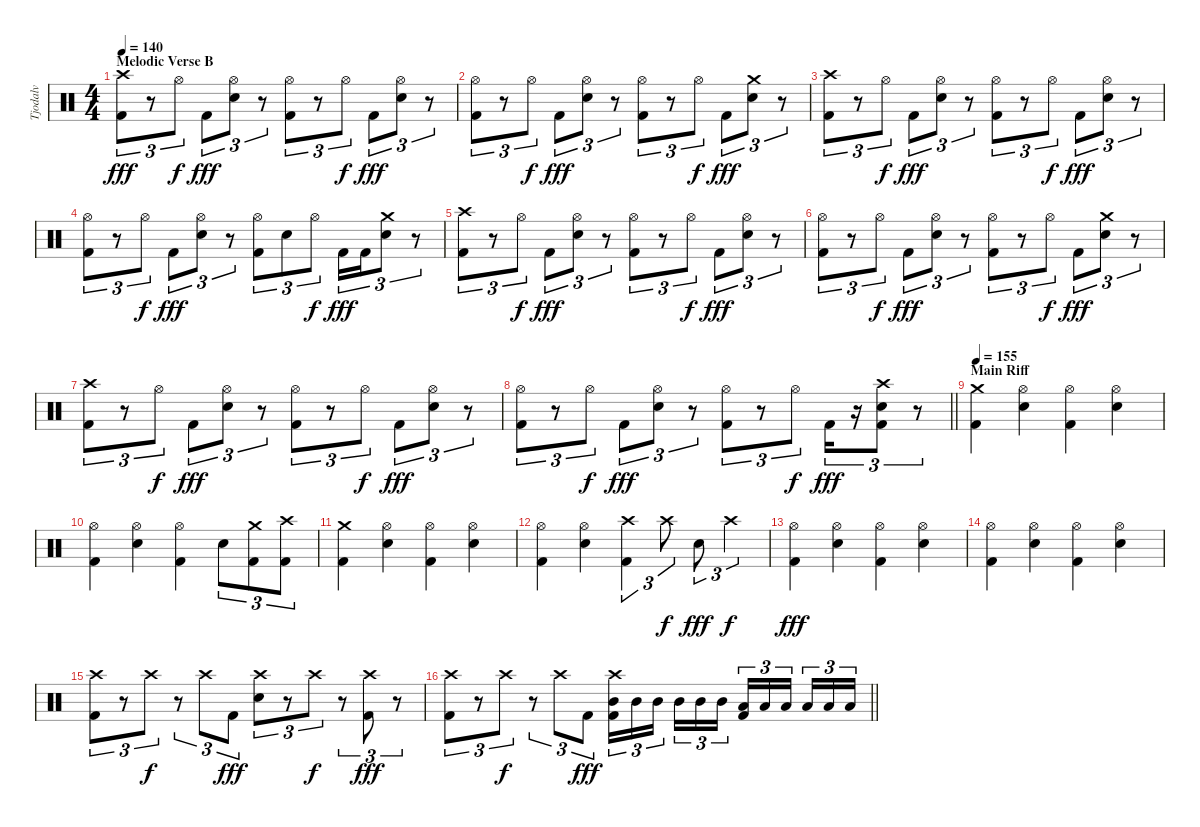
\track ("Tjodalv" "Tjodalv") {instrument percussion}
\staff {score}
\articulation defaults
\ts (4 4)
\section ("" "Melodic Verse B")
\tempo 140
\clef neutral
\ks c
("Crash high (hit)" "Kick (hit) 2").8{tu (3 2) dy fff} r.8{tu (3 2)} "Hi-Hat (open)".8{tu (3 2) dy f} "Kick (hit) 2".8{tu (3 2) dy fff} ("Hi-Hat (open)" "Snare (hit) 2").8{tu (3 2)} r.8{tu (3 2)} ("Hi-Hat (open)" "Kick (hit) 2").8{tu (3 2)} r.8{tu (3 2)} "Hi-Hat (open)".8{tu (3 2) dy f} "Kick (hit) 2".8{tu (3 2) dy fff} ("Hi-Hat (open)" "Snare (hit) 2").8{tu (3 2)} r.8{tu (3 2)} |
("Hi-Hat (open)" "Kick (hit) 2").8{tu (3 2)} r.8{tu (3 2)} "Hi-Hat (open)".8{tu (3 2) dy f} "Kick (hit) 2".8{tu (3 2) dy fff} ("Hi-Hat (open)" "Snare (hit) 2").8{tu (3 2)} r.8{tu (3 2)} ("Hi-Hat (open)" "Kick (hit) 2").8{tu (3 2)} r.8{tu (3 2)} "Hi-Hat (open)".8{tu (3 2) dy f} "Kick (hit) 2".8{tu (3 2) dy fff} ("Crash medium (hit)" "Snare (hit) 2").8{tu (3 2)} r.8{tu (3 2)} |
("Crash high (hit)" "Kick (hit) 2").8{tu (3 2)} r.8{tu (3 2)} "Hi-Hat (open)".8{tu (3 2) dy f} "Kick (hit) 2".8{tu (3 2) dy fff} ("Hi-Hat (open)" "Snare (hit) 2").8{tu (3 2)} r.8{tu (3 2)} ("Hi-Hat (open)" "Kick (hit) 2").8{tu (3 2)} r.8{tu (3 2)} "Hi-Hat (open)".8{tu (3 2) dy f} "Kick (hit) 2".8{tu (3 2) dy fff} ("Hi-Hat (open)" "Snare (hit) 2").8{tu (3 2)} r.8{tu (3 2)} |
("Hi-Hat (open)" "Kick (hit) 2").8{tu (3 2)} r.8{tu (3 2)} "Hi-Hat (open)".8{tu (3 2) dy f} "Kick (hit) 2".8{tu (3 2) dy fff} ("Hi-Hat (open)" "Snare (hit) 2").8{tu (3 2)} r.8{tu (3 2)} ("Hi-Hat (open)" "Kick (hit) 2").8{tu (3 2)} "Snare (hit) 2".8{tu (3 2)} "Hi-Hat (open)".8{tu (3 2) dy f} "Kick (hit) 2".16{tu (3 2) dy fff} "Kick (hit) 2".16{tu (3 2)} ("Crash medium (hit)" "Snare (hit) 2").8{tu (3 2)} r.8{tu (3 2)} |
("Crash high (hit)" "Kick (hit) 2").8{tu (3 2)} r.8{tu (3 2)} "Hi-Hat (open)".8{tu (3 2) dy f} "Kick (hit) 2".8{tu (3 2) dy fff} ("Hi-Hat (open)" "Snare (hit) 2").8{tu (3 2)} r.8{tu (3 2)} ("Hi-Hat (open)" "Kick (hit) 2").8{tu (3 2)} r.8{tu (3 2)} "Hi-Hat (open)".8{tu (3 2) dy f} "Kick (hit) 2".8{tu (3 2) dy fff} ("Hi-Hat (open)" "Snare (hit) 2").8{tu (3 2)} r.8{tu (3 2)} |
("Hi-Hat (open)" "Kick (hit) 2").8{tu (3 2)} r.8{tu (3 2)} "Hi-Hat (open)".8{tu (3 2) dy f} "Kick (hit) 2".8{tu (3 2) dy fff} ("Hi-Hat (open)" "Snare (hit) 2").8{tu (3 2)} r.8{tu (3 2)} ("Hi-Hat (open)" "Kick (hit) 2").8{tu (3 2)} r.8{tu (3 2)} "Hi-Hat (open)".8{tu (3 2) dy f} "Kick (hit) 2".8{tu (3 2) dy fff} ("Crash medium (hit)" "Snare (hit) 2").8{tu (3 2)} r.8{tu (3 2)} |
("Crash high (hit)" "Kick (hit) 2").8{tu (3 2)} r.8{tu (3 2)} "Hi-Hat (open)".8{tu (3 2) dy f} "Kick (hit) 2".8{tu (3 2) dy fff} ("Hi-Hat (open)" "Snare (hit) 2").8{tu (3 2)} r.8{tu (3 2)} ("Hi-Hat (open)" "Kick (hit) 2").8{tu (3 2)} r.8{tu (3 2)} "Hi-Hat (open)".8{tu (3 2) dy f} "Kick (hit) 2".8{tu (3 2) dy fff} ("Hi-Hat (open)" "Snare (hit) 2").8{tu (3 2)} r.8{tu (3 2)} |
\barLineRight lightlight
("Hi-Hat (open)" "Kick (hit) 2").8{tu (3 2)} r.8{tu (3 2)} "Hi-Hat (open)".8{tu (3 2) dy f} "Kick (hit) 2".8{tu (3 2) dy fff} ("Hi-Hat (open)" "Snare (hit) 2").8{tu (3 2)} r.8{tu (3 2)} ("Hi-Hat (open)" "Kick (hit) 2").8{tu (3 2)} r.8{tu (3 2)} "Hi-Hat (open)".8{tu (3 2) dy f} "Kick (hit) 2".16{tu (3 2) dy fff} r.16{tu (3 2)} ("Crash high (hit)" "Snare (hit) 2" "Kick (hit) 2").8{tu (3 2)} r.8{tu (3 2)} |
\section ("" "Main Riff")
\tempo 155
("Crash medium (hit)" "Kick (hit) 2").4 ("Hi-Hat (open)" "Snare (hit) 2").4 ("Hi-Hat (open)" "Kick (hit) 2").4 ("Hi-Hat (open)" "Snare (hit) 2").4 |
("Hi-Hat (open)" "Kick (hit) 2").4 ("Hi-Hat (open)" "Snare (hit) 2").4 ("Hi-Hat (open)" "Kick (hit) 2").4 "Snare (hit) 2".8{tu (3 2)} ("Crash medium (hit)" "Kick (hit) 2").8{tu (3 2)} ("Crash high (hit)" "Kick (hit) 2").8{tu (3 2)} |
("Crash medium (hit)" "Kick (hit) 2").4 ("Hi-Hat (open)" "Snare (hit) 2").4 ("Hi-Hat (open)" "Kick (hit) 2").4 ("Hi-Hat (open)" "Snare (hit) 2").4 |
("Hi-Hat (open)" "Kick (hit) 2").4 ("Hi-Hat (open)" "Snare (hit) 2").4 ("Crash high (hit)" "Kick (hit) 2").4{tu (3 2)} "Crash high (hit)".8{tu (3 2) dy f} "Snare (hit) 2".8{tu (3 2) dy fff} "Crash high (hit)".4{tu (3 2) dy f} |
("Hi-Hat (open)" "Kick (hit) 2").4{dy fff} ("Hi-Hat (open)" "Snare (hit) 2").4 ("Hi-Hat (open)" "Kick (hit) 2").4 ("Hi-Hat (open)" "Snare (hit) 2").4 |
("Hi-Hat (open)" "Kick (hit) 2").4 ("Hi-Hat (open)" "Snare (hit) 2").4 ("Hi-Hat (open)" "Kick (hit) 2").4 ("Hi-Hat (open)" "Snare (hit) 2").4 |
("Crash high (hit)" "Kick (hit) 2").8{tu (3 2)} r.8{tu (3 2)} "Crash high (hit)".8{tu (3 2) dy f} r.8{tu (3 2)} "Crash high (hit)".8{tu (3 2)} "Kick (hit) 2".8{tu (3 2) dy fff} ("Crash high (hit)" "Snare (hit) 2").8{tu (3 2)} r.8{tu (3 2)} "Crash high (hit)".8{tu (3 2) dy f} r.8{tu (3 2)} ("Crash high (hit)" "Kick (hit) 2").8{tu (3 2) dy fff} r.8{tu (3 2)} |
\barLineRight lightlight
("Crash high (hit)" "Kick (hit) 2").8{tu (3 2)} r.8{tu (3 2)} "Crash high (hit)".8{tu (3 2) dy f} r.8{tu (3 2)} "Crash high (hit)".8{tu (3 2)} "Kick (hit) 2".8{tu (3 2) dy fff} ("Crash high (hit)" "Mid Tom (hit)" "Kick (hit) 2").16{tu (3 2)} "Mid Tom (hit)".16{tu (3 2)} "Mid Tom (hit)".16{tu (3 2) beam splitsecondary} "Mid Tom (hit)".16{tu (3 2)} "Mid Tom (hit)".16{tu (3 2)} "Mid Tom (hit)".16{tu (3 2)} ("Low Tom (hit)" "Kick (hit) 2").16{tu (3 2)} "Low Tom (hit)".16{tu (3 2)} "Low Tom (hit)".16{tu (3 2) beam splitsecondary} "Low Tom (hit)".16{tu (3 2)} "Low Tom (hit)".16{tu (3 2)} "Low Tom (hit)".16{tu (3 2)}
